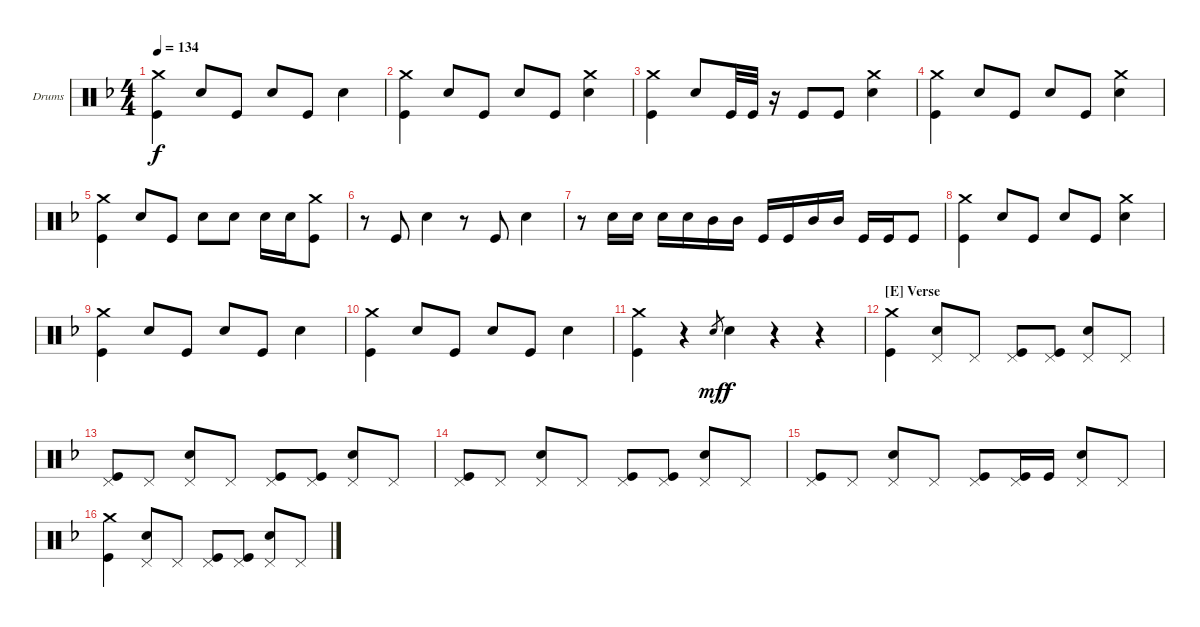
\defaultSystemsLayout 4
\bracketExtendMode groupsimilarinstruments
\firstSystemTrackNameOrientation horizontal
\otherSystemsTrackNameOrientation horizontal
\track ("Carmine" "Drums") {instrument percussion}
\staff {score}
\articulation defaults
\ts (4 4)
\tempo 134
\clef neutral
\ks f
("Crash medium (hit)" "Kick (hit)").4{dy f} "Snare (hit) 2".8 "Kick (hit)".8 "Snare (hit) 2".8 "Kick (hit)".8 "Snare (hit) 2".4 |
("Crash medium (hit)" "Kick (hit)").4 "Snare (hit) 2".8 "Kick (hit)".8 "Snare (hit) 2".8 "Kick (hit)".8 ("Crash medium (hit)" "Snare (hit) 2").4 |
("Crash medium (hit)" "Kick (hit)").4 "Snare (hit) 2".8 "Kick (hit)".32 "Kick (hit)".32 r.16 "Kick (hit)".8 "Kick (hit)".8 ("Crash medium (hit)" "Snare (hit) 2").4 |
("Crash medium (hit)" "Kick (hit)").4 "Snare (hit) 2".8 "Kick (hit)".8 "Snare (hit) 2".8 "Kick (hit)".8 ("Crash medium (hit)" "Snare (hit) 2").4 |
("Crash medium (hit)" "Kick (hit)").4 "Snare (hit) 2".8 "Kick (hit)".8 "Snare (hit) 2".8 "Snare (hit) 2".8 "Snare (hit) 2".16 "Snare (hit) 2".16 ("Crash medium (hit)" "Kick (hit)").8 |
r.8 "Kick (hit)".8 "Snare (hit) 2".4 r.8 "Kick (hit)".8 "Snare (hit) 2".4 |
r.8 "Snare (hit) 2".16 "Snare (hit) 2".16 "Snare (hit) 2".16 "Snare (hit) 2".16 "Mid Tom (hit)".16 "Mid Tom (hit)".16 "Kick (hit)".16 "Kick (hit)".16 "Mid Tom (hit)".16 "Mid Tom (hit)".16 "Kick (hit)".16 "Kick (hit)".16 "Kick (hit)".8 |
("Crash medium (hit)" "Kick (hit)").4 "Snare (hit) 2".8 "Kick (hit)".8 "Snare (hit) 2".8 "Kick (hit)".8 ("Crash medium (hit)" "Snare (hit) 2").4 |
("Crash medium (hit)" "Kick (hit)").4 "Snare (hit) 2".8 "Kick (hit)".8 "Snare (hit) 2".8 "Kick (hit)".8 "Snare (hit) 2".4 |
("Crash medium (hit)" "Kick (hit)").4 "Snare (hit) 2".8 "Kick (hit)".8 "Snare (hit) 2".8 "Kick (hit)".8 "Snare (hit) 2".4 |
("Crash medium (hit)" "Kick (hit)").4 r.4 "Snare (hit) 2".8{gr dy mf} "Snare (hit) 2".4{dy f} r.4 r.4 |
\section ("E" "Verse")
("Crash medium (hit)" "Kick (hit)").4 ("Pedal Hi-Hat (hit)" "Snare (hit) 2").8 "Pedal Hi-Hat (hit)".8 ("Pedal Hi-Hat (hit)" "Kick (hit)").8 ("Pedal Hi-Hat (hit)" "Kick (hit)").8 ("Pedal Hi-Hat (hit)" "Snare (hit) 2").8 "Pedal Hi-Hat (hit)".8 |
("Pedal Hi-Hat (hit)" "Kick (hit)").8 "Pedal Hi-Hat (hit)".8 ("Pedal Hi-Hat (hit)" "Snare (hit) 2").8 "Pedal Hi-Hat (hit)".8 ("Pedal Hi-Hat (hit)" "Kick (hit)").8 ("Pedal Hi-Hat (hit)" "Kick (hit)").8 ("Pedal Hi-Hat (hit)" "Snare (hit) 2").8 "Pedal Hi-Hat (hit)".8 |
("Pedal Hi-Hat (hit)" "Kick (hit)").8 "Pedal Hi-Hat (hit)".8 ("Pedal Hi-Hat (hit)" "Snare (hit) 2").8 "Pedal Hi-Hat (hit)".8 ("Pedal Hi-Hat (hit)" "Kick (hit)").8 ("Pedal Hi-Hat (hit)" "Kick (hit)").8 ("Pedal Hi-Hat (hit)" "Snare (hit) 2").8 "Pedal Hi-Hat (hit)".8 |
("Pedal Hi-Hat (hit)" "Kick (hit)").8 "Pedal Hi-Hat (hit)".8 ("Pedal Hi-Hat (hit)" "Snare (hit) 2").8 "Pedal Hi-Hat (hit)".8 ("Pedal Hi-Hat (hit)" "Kick (hit)").8 ("Pedal Hi-Hat (hit)" "Kick (hit)").16 "Kick (hit)".16 ("Pedal Hi-Hat (hit)" "Snare (hit) 2").8 "Pedal Hi-Hat (hit)".8 |
("Crash medium (hit)" "Kick (hit)").4 ("Pedal Hi-Hat (hit)" "Snare (hit) 2").8 "Pedal Hi-Hat (hit)".8 ("Pedal Hi-Hat (hit)" "Kick (hit)").8 ("Pedal Hi-Hat (hit)" "Kick (hit)").8 ("Pedal Hi-Hat (hit)" "Snare (hit) 2").8 "Pedal Hi-Hat (hit)".8
